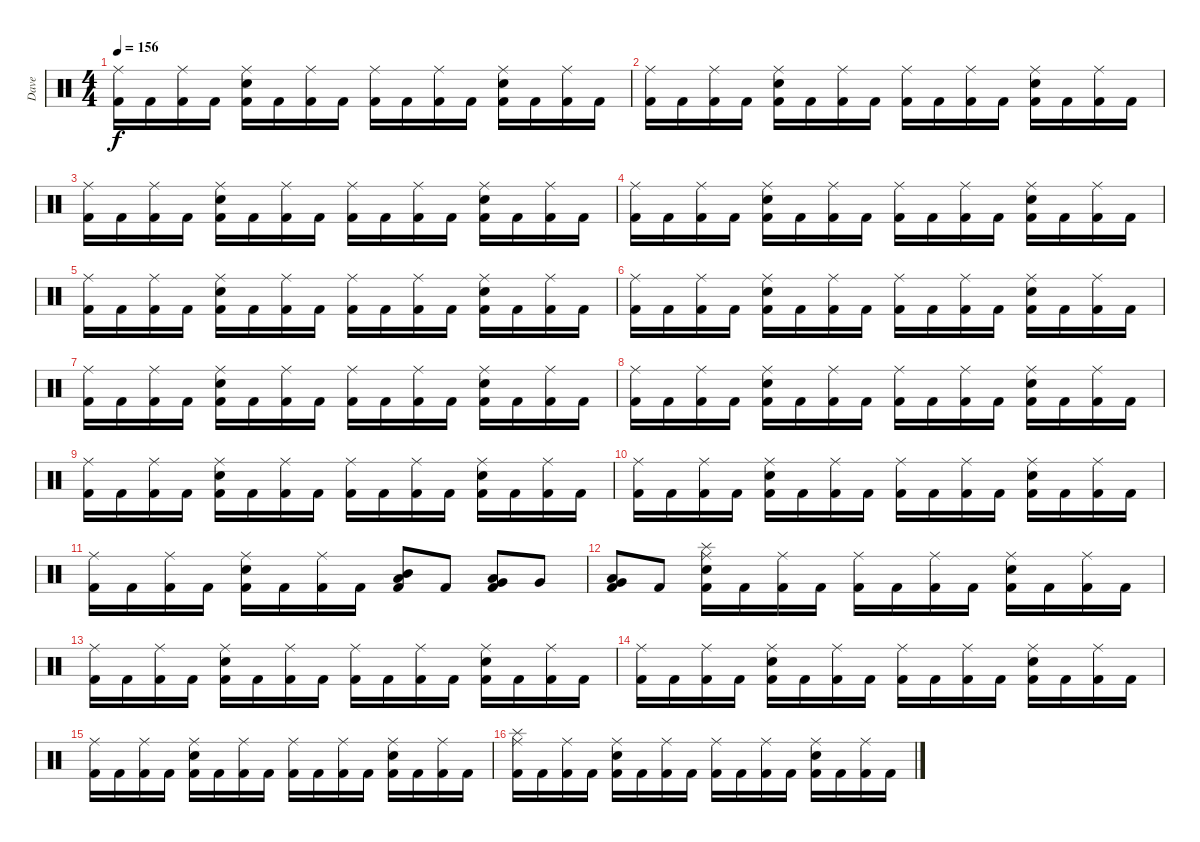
\track ("Dave" "Dave") {instrument percussion}
\staff {score}
\articulation defaults
\ts (4 4)
\tempo 156
\clef neutral
\ks c
("Kick (hit) 2" "Ride (middle)").16{dy f} "Kick (hit) 2".16 ("Ride (middle)" "Kick (hit) 2").16 "Kick (hit) 2".16 ("Ride (middle)" "Electric Snare (hit)" "Kick (hit) 2").16 "Kick (hit) 2".16 ("Ride (middle)" "Kick (hit) 2").16 "Kick (hit) 2".16 ("Ride (middle)" "Kick (hit) 2").16 "Kick (hit) 2".16 ("Ride (middle)" "Kick (hit) 2").16 "Kick (hit) 2".16 ("Ride (middle)" "Electric Snare (hit)" "Kick (hit) 2").16 "Kick (hit) 2".16 ("Ride (middle)" "Kick (hit) 2").16 "Kick (hit) 2".16 |
("Kick (hit) 2" "Ride (middle)").16 "Kick (hit) 2".16 ("Ride (middle)" "Kick (hit) 2").16 "Kick (hit) 2".16 ("Ride (middle)" "Electric Snare (hit)" "Kick (hit) 2").16 "Kick (hit) 2".16 ("Ride (middle)" "Kick (hit) 2").16 "Kick (hit) 2".16 ("Ride (middle)" "Kick (hit) 2").16 "Kick (hit) 2".16 ("Ride (middle)" "Kick (hit) 2").16 "Kick (hit) 2".16 ("Ride (middle)" "Electric Snare (hit)" "Kick (hit) 2").16 "Kick (hit) 2".16 ("Ride (middle)" "Kick (hit) 2").16 "Kick (hit) 2".16 |
("Kick (hit) 2" "Ride (middle)").16 "Kick (hit) 2".16 ("Ride (middle)" "Kick (hit) 2").16 "Kick (hit) 2".16 ("Ride (middle)" "Electric Snare (hit)" "Kick (hit) 2").16 "Kick (hit) 2".16 ("Ride (middle)" "Kick (hit) 2").16 "Kick (hit) 2".16 ("Ride (middle)" "Kick (hit) 2").16 "Kick (hit) 2".16 ("Ride (middle)" "Kick (hit) 2").16 "Kick (hit) 2".16 ("Ride (middle)" "Electric Snare (hit)" "Kick (hit) 2").16 "Kick (hit) 2".16 ("Ride (middle)" "Kick (hit) 2").16 "Kick (hit) 2".16 |
("Kick (hit) 2" "Ride (middle)").16 "Kick (hit) 2".16 ("Ride (middle)" "Kick (hit) 2").16 "Kick (hit) 2".16 ("Ride (middle)" "Electric Snare (hit)" "Kick (hit) 2").16 "Kick (hit) 2".16 ("Ride (middle)" "Kick (hit) 2").16 "Kick (hit) 2".16 ("Ride (middle)" "Kick (hit) 2").16 "Kick (hit) 2".16 ("Ride (middle)" "Kick (hit) 2").16 "Kick (hit) 2".16 ("Ride (middle)" "Electric Snare (hit)" "Kick (hit) 2").16 "Kick (hit) 2".16 ("Ride (middle)" "Kick (hit) 2").16 "Kick (hit) 2".16 |
("Kick (hit) 2" "Ride (middle)").16 "Kick (hit) 2".16 ("Ride (middle)" "Kick (hit) 2").16 "Kick (hit) 2".16 ("Ride (middle)" "Electric Snare (hit)" "Kick (hit) 2").16 "Kick (hit) 2".16 ("Ride (middle)" "Kick (hit) 2").16 "Kick (hit) 2".16 ("Ride (middle)" "Kick (hit) 2").16 "Kick (hit) 2".16 ("Ride (middle)" "Kick (hit) 2").16 "Kick (hit) 2".16 ("Ride (middle)" "Electric Snare (hit)" "Kick (hit) 2").16 "Kick (hit) 2".16 ("Ride (middle)" "Kick (hit) 2").16 "Kick (hit) 2".16 |
("Kick (hit) 2" "Ride (middle)").16 "Kick (hit) 2".16 ("Ride (middle)" "Kick (hit) 2").16 "Kick (hit) 2".16 ("Ride (middle)" "Electric Snare (hit)" "Kick (hit) 2").16 "Kick (hit) 2".16 ("Ride (middle)" "Kick (hit) 2").16 "Kick (hit) 2".16 ("Ride (middle)" "Kick (hit) 2").16 "Kick (hit) 2".16 ("Ride (middle)" "Kick (hit) 2").16 "Kick (hit) 2".16 ("Ride (middle)" "Electric Snare (hit)" "Kick (hit) 2").16 "Kick (hit) 2".16 ("Ride (middle)" "Kick (hit) 2").16 "Kick (hit) 2".16 |
("Kick (hit) 2" "Ride (middle)").16 "Kick (hit) 2".16 ("Ride (middle)" "Kick (hit) 2").16 "Kick (hit) 2".16 ("Ride (middle)" "Electric Snare (hit)" "Kick (hit) 2").16 "Kick (hit) 2".16 ("Ride (middle)" "Kick (hit) 2").16 "Kick (hit) 2".16 ("Ride (middle)" "Kick (hit) 2").16 "Kick (hit) 2".16 ("Ride (middle)" "Kick (hit) 2").16 "Kick (hit) 2".16 ("Ride (middle)" "Electric Snare (hit)" "Kick (hit) 2").16 "Kick (hit) 2".16 ("Ride (middle)" "Kick (hit) 2").16 "Kick (hit) 2".16 |
("Kick (hit) 2" "Ride (middle)").16 "Kick (hit) 2".16 ("Ride (middle)" "Kick (hit) 2").16 "Kick (hit) 2".16 ("Ride (middle)" "Electric Snare (hit)" "Kick (hit) 2").16 "Kick (hit) 2".16 ("Ride (middle)" "Kick (hit) 2").16 "Kick (hit) 2".16 ("Ride (middle)" "Kick (hit) 2").16 "Kick (hit) 2".16 ("Ride (middle)" "Kick (hit) 2").16 "Kick (hit) 2".16 ("Ride (middle)" "Electric Snare (hit)" "Kick (hit) 2").16 "Kick (hit) 2".16 ("Ride (middle)" "Kick (hit) 2").16 "Kick (hit) 2".16 |
("Kick (hit) 2" "Ride (middle)").16 "Kick (hit) 2".16 ("Ride (middle)" "Kick (hit) 2").16 "Kick (hit) 2".16 ("Ride (middle)" "Electric Snare (hit)" "Kick (hit) 2").16 "Kick (hit) 2".16 ("Ride (middle)" "Kick (hit) 2").16 "Kick (hit) 2".16 ("Ride (middle)" "Kick (hit) 2").16 "Kick (hit) 2".16 ("Ride (middle)" "Kick (hit) 2").16 "Kick (hit) 2".16 ("Ride (middle)" "Electric Snare (hit)" "Kick (hit) 2").16 "Kick (hit) 2".16 ("Ride (middle)" "Kick (hit) 2").16 "Kick (hit) 2".16 |
("Kick (hit) 2" "Ride (middle)").16 "Kick (hit) 2".16 ("Ride (middle)" "Kick (hit) 2").16 "Kick (hit) 2".16 ("Ride (middle)" "Electric Snare (hit)" "Kick (hit) 2").16 "Kick (hit) 2".16 ("Ride (middle)" "Kick (hit) 2").16 "Kick (hit) 2".16 ("Ride (middle)" "Kick (hit) 2").16 "Kick (hit) 2".16 ("Ride (middle)" "Kick (hit) 2").16 "Kick (hit) 2".16 ("Ride (middle)" "Electric Snare (hit)" "Kick (hit) 2").16 "Kick (hit) 2".16 ("Ride (middle)" "Kick (hit) 2").16 "Kick (hit) 2".16 |
("Kick (hit) 2" "Ride (middle)").16 "Kick (hit) 2".16 ("Ride (middle)" "Kick (hit) 2").16 "Kick (hit) 2".16 ("Ride (middle)" "Electric Snare (hit)" "Kick (hit) 2").16 "Kick (hit) 2".16 ("Ride (middle)" "Kick (hit) 2").16 "Kick (hit) 2".16 ("Kick (hit) 2" "Low Tom (hit)" "Mid Tom (hit)").8 "Kick (hit) 2".8 ("Kick (hit) 2" "Very Low Tom (hit)" "Low Tom (hit)").8 "Very Low Tom (hit)".8 |
("Kick (hit) 2" "Low Floor Tom (hit)" "Very Low Tom (hit)").8 "Kick (hit) 2".8 ("Ride (middle)" "Electric Snare (hit)" "Kick (hit) 2" "Splash (hit)").16 "Kick (hit) 2".16 ("Ride (middle)" "Kick (hit) 2").16 "Kick (hit) 2".16 ("Ride (middle)" "Kick (hit) 2").16 "Kick (hit) 2".16 ("Ride (middle)" "Kick (hit) 2").16 "Kick (hit) 2".16 ("Ride (middle)" "Electric Snare (hit)" "Kick (hit) 2").16 "Kick (hit) 2".16 ("Ride (middle)" "Kick (hit) 2").16 "Kick (hit) 2".16 |
("Kick (hit) 2" "Ride (middle)").16 "Kick (hit) 2".16 ("Ride (middle)" "Kick (hit) 2").16 "Kick (hit) 2".16 ("Ride (middle)" "Electric Snare (hit)" "Kick (hit) 2").16 "Kick (hit) 2".16 ("Ride (middle)" "Kick (hit) 2").16 "Kick (hit) 2".16 ("Ride (middle)" "Kick (hit) 2").16 "Kick (hit) 2".16 ("Ride (middle)" "Kick (hit) 2").16 "Kick (hit) 2".16 ("Ride (middle)" "Electric Snare (hit)" "Kick (hit) 2").16 "Kick (hit) 2".16 ("Ride (middle)" "Kick (hit) 2").16 "Kick (hit) 2".16 |
("Kick (hit) 2" "Ride (middle)").16 "Kick (hit) 2".16 ("Ride (middle)" "Kick (hit) 2").16 "Kick (hit) 2".16 ("Ride (middle)" "Electric Snare (hit)" "Kick (hit) 2").16 "Kick (hit) 2".16 ("Ride (middle)" "Kick (hit) 2").16 "Kick (hit) 2".16 ("Ride (middle)" "Kick (hit) 2").16 "Kick (hit) 2".16 ("Ride (middle)" "Kick (hit) 2").16 "Kick (hit) 2".16 ("Ride (middle)" "Electric Snare (hit)" "Kick (hit) 2").16 "Kick (hit) 2".16 ("Ride (middle)" "Kick (hit) 2").16 "Kick (hit) 2".16 |
("Kick (hit) 2" "Ride (middle)").16 "Kick (hit) 2".16 ("Ride (middle)" "Kick (hit) 2").16 "Kick (hit) 2".16 ("Ride (middle)" "Electric Snare (hit)" "Kick (hit) 2").16 "Kick (hit) 2".16 ("Ride (middle)" "Kick (hit) 2").16 "Kick (hit) 2".16 ("Ride (middle)" "Kick (hit) 2").16 "Kick (hit) 2".16 ("Ride (middle)" "Kick (hit) 2").16 "Kick (hit) 2".16 ("Ride (middle)" "Electric Snare (hit)" "Kick (hit) 2").16 "Kick (hit) 2".16 ("Ride (middle)" "Kick (hit) 2").16 "Kick (hit) 2".16 |
("Kick (hit) 2" "Ride (middle)" "Splash (hit)").16 "Kick (hit) 2".16 ("Ride (middle)" "Kick (hit) 2").16 "Kick (hit) 2".16 ("Ride (middle)" "Electric Snare (hit)" "Kick (hit) 2").16 "Kick (hit) 2".16 ("Ride (middle)" "Kick (hit) 2").16 "Kick (hit) 2".16 ("Ride (middle)" "Kick (hit) 2").16 "Kick (hit) 2".16 ("Ride (middle)" "Kick (hit) 2").16 "Kick (hit) 2".16 ("Ride (middle)" "Electric Snare (hit)" "Kick (hit) 2").16 "Kick (hit) 2".16 ("Ride (middle)" "Kick (hit) 2").16 "Kick (hit) 2".16
